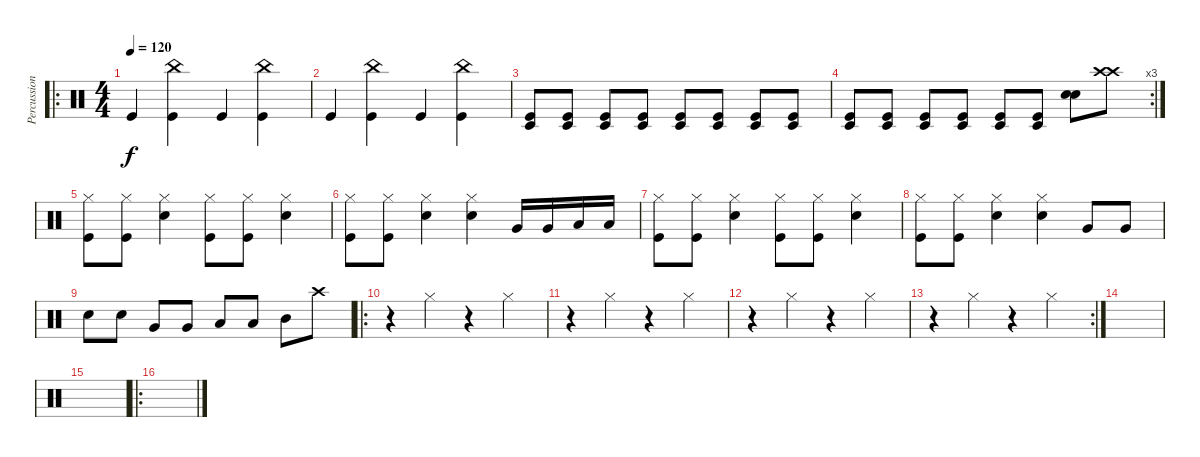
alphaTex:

\track ("Percussion" "Percussion") {instrument percussion}
\staff {score}
\articulation defaults
\ro
\ts (4 4)
\tempo 120
\clef neutral
\ks c "Kick (hit)".4{dy f}
("China (hit)" "Kick (hit)").4 "Kick (hit)".4 ("China (hit)" "Kick (hit)").4 |
"Kick (hit)".4 ("China (hit)" "Kick (hit)").4 "Kick (hit)".4 ("China (hit)" "Kick (hit)").4 |
("Timbale low (hit)" "Kick (hit)").8 ("Timbale low (hit)" "Kick (hit)").8 ("Timbale low (hit)" "Kick (hit)").8 ("Timbale low (hit)" "Kick (hit)").8 ("Timbale low (hit)" "Kick (hit)").8 ("Timbale low (hit)" "Kick (hit)").8 ("Timbale low (hit)" "Kick (hit)").8 ("Timbale low (hit)" "Kick (hit)").8 |
\rc 3
("Timbale low (hit)" "Kick (hit)").8 ("Timbale low (hit)" "Kick (hit)").8 ("Timbale low (hit)" "Kick (hit)").8 ("Timbale low (hit)" "Kick (hit)").8 ("Timbale low (hit)" "Kick (hit)").8 ("Timbale low (hit)" "Kick (hit)").8 ("Snare (hit) 2" "Snare (hit) 2").8 ("Crash high (hit)" "Crash high (hit)").8 |
("Hi-Hat (closed)" "Kick (hit)").8 ("Hi-Hat (closed)" "Kick (hit)").8 ("Hi-Hat (closed)" "Snare (hit) 2").4 ("Hi-Hat (closed)" "Kick (hit)").8 ("Hi-Hat (closed)" "Kick (hit)").8 ("Hi-Hat (closed)" "Snare (hit) 2").4 |
("Hi-Hat (closed)" "Kick (hit)").8 ("Hi-Hat (closed)" "Kick (hit)").8 ("Hi-Hat (closed)" "Snare (hit) 2").4 ("Hi-Hat (closed)" "Snare (hit) 2").4 "Very Low Tom (hit)".16 "Very Low Tom (hit)".16 "Low Tom (hit)".16 "Low Tom (hit)".16 |
("Hi-Hat (closed)" "Kick (hit)").8 ("Hi-Hat (closed)" "Kick (hit)").8 ("Hi-Hat (closed)" "Snare (hit) 2").4 ("Hi-Hat (closed)" "Kick (hit)").8 ("Hi-Hat (closed)" "Kick (hit)").8 ("Hi-Hat (closed)" "Snare (hit) 2").4 |
("Hi-Hat (closed)" "Kick (hit)").8 ("Hi-Hat (closed)" "Kick (hit)").8 ("Hi-Hat (closed)" "Snare (hit) 2").4 ("Hi-Hat (closed)" "Snare (hit) 2").4 "Very Low Tom (hit)".8 "Very Low Tom (hit)".8 |
"Snare (hit) 2".8 "Snare (hit) 2".8 "Very Low Tom (hit)".8 "Very Low Tom (hit)".8 "Low Tom (hit)".8 "Low Tom (hit)".8 "Mid Tom (hit)".8 "Crash high (hit)".8 |
\ro
r.4 "Hi-Hat (closed)".4 r.4 "Hi-Hat (closed)".4 |
r.4 "Hi-Hat (closed)".4 r.4 "Hi-Hat (closed)".4 |
r.4 "Hi-Hat (closed)".4 r.4 "Hi-Hat (closed)".4 |
\rc 2
r.4 "Hi-Hat (closed)".4 r.4 "Hi-Hat (closed)".4 |
|
|
\ro
